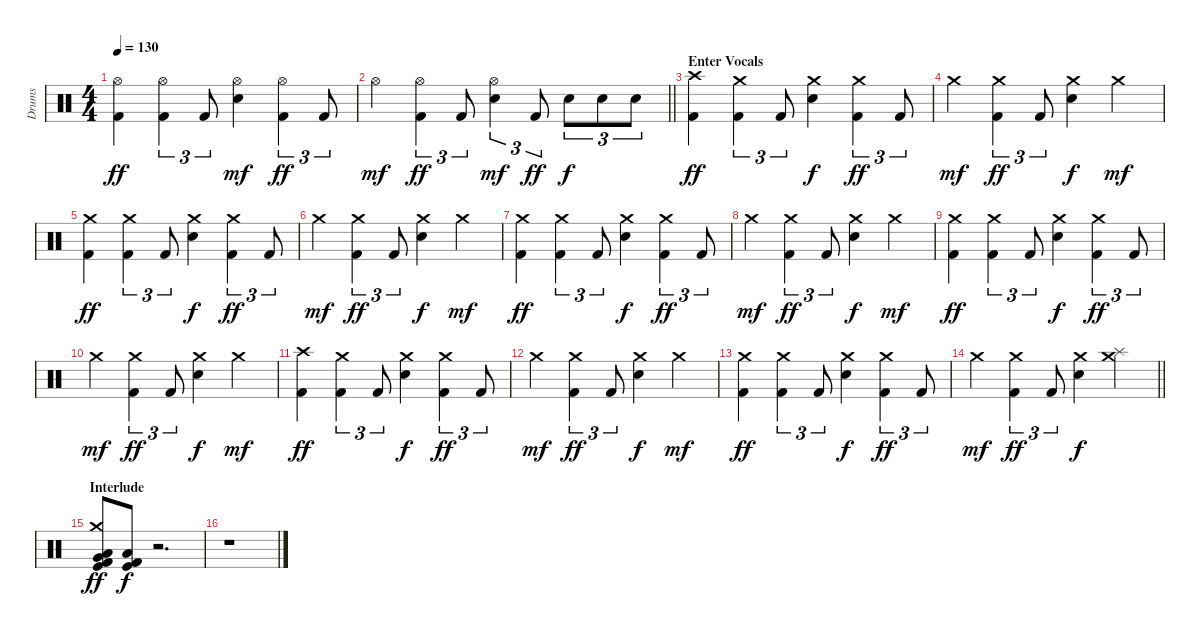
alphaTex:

\track ("Drums" "Drums") {instrument percussion}
\staff {score}
\articulation defaults
\ts (4 4)
\tempo 130
\clef neutral
\ks c
("Hi-Hat (open)" "Kick (hit) 2").4{dy ff} ("Hi-Hat (open)" "Kick (hit) 2").4{tu (3 2)} "Kick (hit) 2".8{tu (3 2)} ("Hi-Hat (open)" "Snare (hit) 2").4{dy mf} ("Hi-Hat (open)" "Kick (hit) 2").4{tu (3 2) dy ff} "Kick (hit) 2".8{tu (3 2)} |
\barLineRight lightlight "Hi-Hat (open)".4{dy mf}
("Hi-Hat (open)" "Kick (hit) 2").4{tu (3 2) dy ff} "Kick (hit) 2".8{tu (3 2)} ("Hi-Hat (open)" "Snare (hit) 2").4{tu (3 2) dy mf} "Kick (hit) 2".8{tu (3 2) dy ff} "Snare (hit) 2".8{tu (3 2) dy f} "Snare (hit) 2".8{tu (3 2)} "Snare (hit) 2".8{tu (3 2)} |
\section ("" "Enter Vocals")
("Crash high (hit)" "Kick (hit) 2").4{dy ff} ("Crash medium (hit)" "Kick (hit) 2").4{tu (3 2)} "Kick (hit) 2".8{tu (3 2)} ("Crash medium (hit)" "Snare (hit) 2").4{dy f} ("Crash medium (hit)" "Kick (hit) 2").4{tu (3 2) dy ff} "Kick (hit) 2".8{tu (3 2)} |
"Crash medium (hit)".4{dy mf} ("Crash medium (hit)" "Kick (hit) 2").4{tu (3 2) dy ff} "Kick (hit) 2".8{tu (3 2)} ("Crash medium (hit)" "Snare (hit) 2").4{dy f} "Crash medium (hit)".4{dy mf} |
("Crash medium (hit)" "Kick (hit) 2").4{dy ff} ("Crash medium (hit)" "Kick (hit) 2").4{tu (3 2)} "Kick (hit) 2".8{tu (3 2)} ("Crash medium (hit)" "Snare (hit) 2").4{dy f} ("Crash medium (hit)" "Kick (hit) 2").4{tu (3 2) dy ff} "Kick (hit) 2".8{tu (3 2)} |
"Crash medium (hit)".4{dy mf} ("Crash medium (hit)" "Kick (hit) 2").4{tu (3 2) dy ff} "Kick (hit) 2".8{tu (3 2)} ("Crash medium (hit)" "Snare (hit) 2").4{dy f} "Crash medium (hit)".4{dy mf} |
("Crash medium (hit)" "Kick (hit) 2").4{dy ff} ("Crash medium (hit)" "Kick (hit) 2").4{tu (3 2)} "Kick (hit) 2".8{tu (3 2)} ("Crash medium (hit)" "Snare (hit) 2").4{dy f} ("Crash medium (hit)" "Kick (hit) 2").4{tu (3 2) dy ff} "Kick (hit) 2".8{tu (3 2)} |
"Crash medium (hit)".4{dy mf} ("Crash medium (hit)" "Kick (hit) 2").4{tu (3 2) dy ff} "Kick (hit) 2".8{tu (3 2)} ("Crash medium (hit)" "Snare (hit) 2").4{dy f} "Crash medium (hit)".4{dy mf} |
("Crash medium (hit)" "Kick (hit) 2").4{dy ff} ("Crash medium (hit)" "Kick (hit) 2").4{tu (3 2)} "Kick (hit) 2".8{tu (3 2)} ("Crash medium (hit)" "Snare (hit) 2").4{dy f} ("Crash medium (hit)" "Kick (hit) 2").4{tu (3 2) dy ff} "Kick (hit) 2".8{tu (3 2)} |
"Crash medium (hit)".4{dy mf} ("Crash medium (hit)" "Kick (hit) 2").4{tu (3 2) dy ff} "Kick (hit) 2".8{tu (3 2)} ("Crash medium (hit)" "Snare (hit) 2").4{dy f} "Crash medium (hit)".4{dy mf} |
("Crash high (hit)" "Kick (hit) 2").4{dy ff} ("Crash medium (hit)" "Kick (hit) 2").4{tu (3 2)} "Kick (hit) 2".8{tu (3 2)} ("Crash medium (hit)" "Snare (hit) 2").4{dy f} ("Crash medium (hit)" "Kick (hit) 2").4{tu (3 2) dy ff} "Kick (hit) 2".8{tu (3 2)} |
"Crash medium (hit)".4{dy mf} ("Crash medium (hit)" "Kick (hit) 2").4{tu (3 2) dy ff} "Kick (hit) 2".8{tu (3 2)} ("Crash medium (hit)" "Snare (hit) 2").4{dy f} "Crash medium (hit)".4{dy mf} |
("Crash medium (hit)" "Kick (hit) 2").4{dy ff} ("Crash medium (hit)" "Kick (hit) 2").4{tu (3 2)} "Kick (hit) 2".8{tu (3 2)} ("Crash medium (hit)" "Snare (hit) 2").4{dy f} ("Crash medium (hit)" "Kick (hit) 2").4{tu (3 2) dy ff} "Kick (hit) 2".8{tu (3 2)} |
\barLineRight lightlight "Crash medium (hit)".4{dy mf}
("Crash medium (hit)" "Kick (hit) 2").4{tu (3 2) dy ff} "Kick (hit) 2".8{tu (3 2)} ("Crash medium (hit)" "Snare (hit) 2").4{dy f} ("Crash medium (hit)" "Splash (hit)").4 |
\section ("" "Interlude")
("Crash medium (hit)" "Very Low Tom (hit)" "Low Floor Tom (hit)" "Kick (hit)" "Kick (hit) 2").8{dy ff} ("Low Floor Tom (hit)" "Kick (hit)" "Kick (hit) 2").8{dy f} r.2{d} |
r.1
